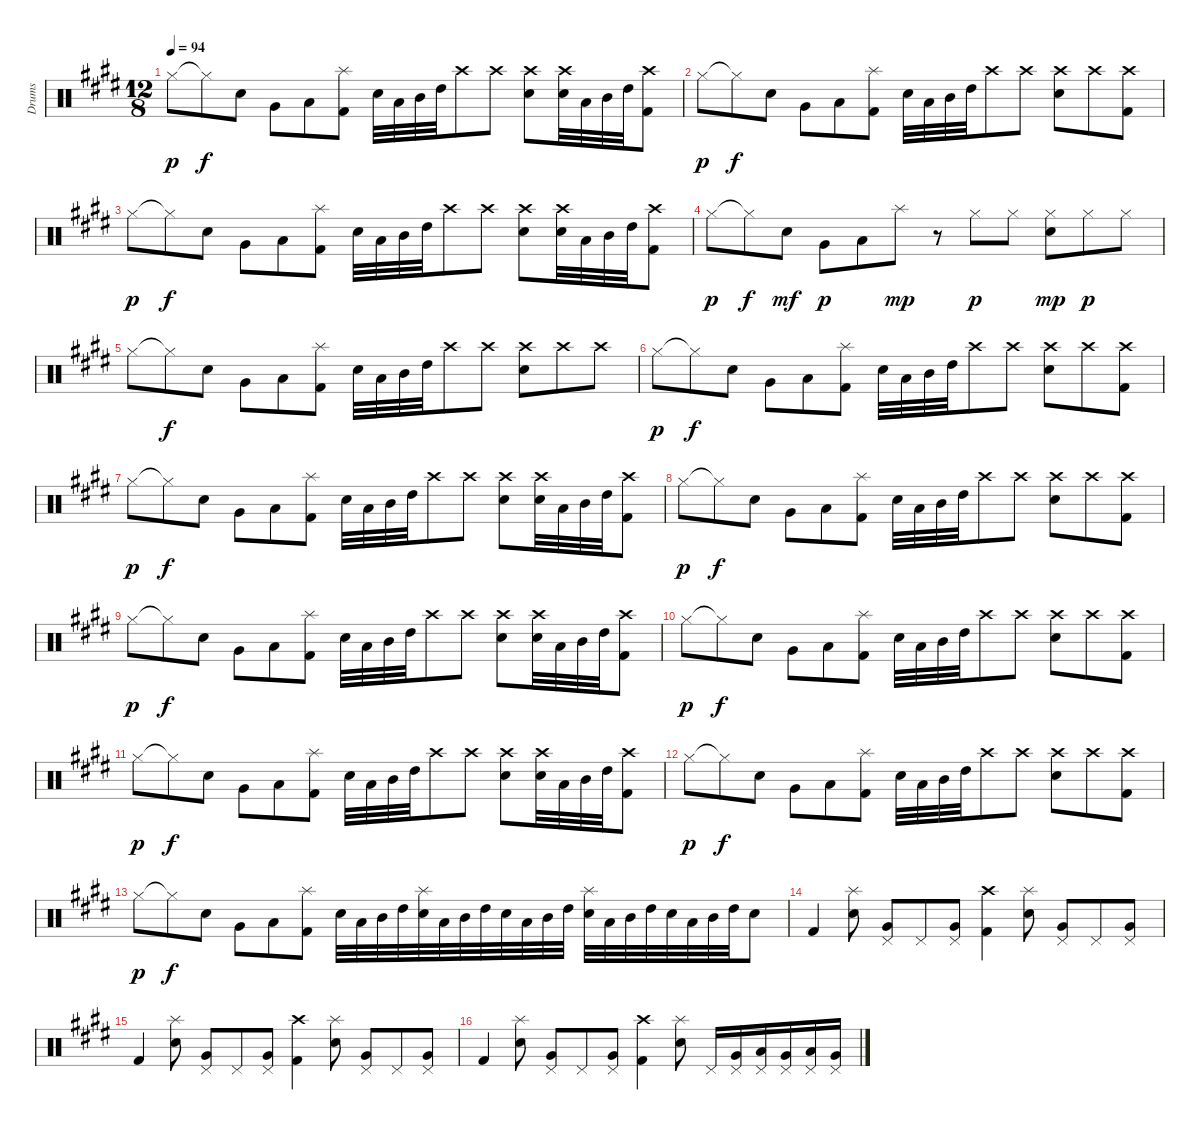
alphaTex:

\track ("Drums" "Drums") {instrument percussion}
\staff {score}
\articulation defaults
\ts (12 8)
\tempo 94
\clef neutral
\ks e "Hi-Hat (closed)".8{dy p} "Hi-Hat (closed)"{t}.8{dy f} "Snare (hit) 2".8 "Very Low Tom (hit)".8 "Low Tom (hit)".8
("Splash (hit)" "Kick (hit) 2").8 "Snare (hit) 2".32 "Low Tom (hit)".32 "Mid Tom (hit)".32 "High Tom (hit)".32 "Crash high (hit)".8 "Crash high (hit)".8 ("Crash high (hit)" "Snare (hit) 2").8 ("Crash high (hit)" "Snare (hit) 2").32 "Low Tom (hit)".32 "Mid Tom (hit)".32 "High Tom (hit)".32 ("Crash high (hit)" "Kick (hit) 2").8 |
"Hi-Hat (closed)".8{dy p} "Hi-Hat (closed)"{t}.8{dy f} "Snare (hit) 2".8 "Very Low Tom (hit)".8 "Low Tom (hit)".8 ("Splash (hit)" "Kick (hit) 2").8 "Snare (hit) 2".32 "Low Tom (hit)".32 "Mid Tom (hit)".32 "High Tom (hit)".32 "Crash high (hit)".8 "Crash high (hit)".8 ("Crash high (hit)" "Snare (hit) 2").8 "Crash high (hit)".8 ("Crash high (hit)" "Kick (hit) 2").8 |
"Hi-Hat (closed)".8{dy p} "Hi-Hat (closed)"{t}.8{dy f} "Snare (hit) 2".8 "Very Low Tom (hit)".8 "Low Tom (hit)".8 ("Splash (hit)" "Kick (hit) 2").8 "Snare (hit) 2".32 "Low Tom (hit)".32 "Mid Tom (hit)".32 "High Tom (hit)".32 "Crash high (hit)".8 "Crash high (hit)".8 ("Crash high (hit)" "Snare (hit) 2").8 ("Crash high (hit)" "Snare (hit) 2").32 "Low Tom (hit)".32 "Mid Tom (hit)".32 "High Tom (hit)".32 ("Crash high (hit)" "Kick (hit) 2").8 |
"Hi-Hat (closed)".8{dy p} "Hi-Hat (closed)"{t}.8{dy f} "Snare (hit) 2".8{dy mf} "Very Low Tom (hit)".8{dy p} "Low Tom (hit)".8 "Splash (hit)".8{dy mp} r.8 "Hi-Hat (closed)".8{dy p} "Hi-Hat (closed)".8 ("Hi-Hat (closed)" "Snare (hit) 2").8{dy mp} "Hi-Hat (closed)".8{dy p} "Hi-Hat (closed)".8 |
"Hi-Hat (closed)".8 "Hi-Hat (closed)"{t}.8{dy f} "Snare (hit) 2".8 "Very Low Tom (hit)".8 "Low Tom (hit)".8 ("Splash (hit)" "Kick (hit) 2").8 "Snare (hit) 2".32 "Low Tom (hit)".32 "Mid Tom (hit)".32 "High Tom (hit)".32 "Crash high (hit)".8 "Crash high (hit)".8 ("Crash high (hit)" "Snare (hit) 2").8 "Crash high (hit)".8 "Crash high (hit)".8 |
"Hi-Hat (closed)".8{dy p} "Hi-Hat (closed)"{t}.8{dy f} "Snare (hit) 2".8 "Very Low Tom (hit)".8 "Low Tom (hit)".8 ("Splash (hit)" "Kick (hit) 2").8 "Snare (hit) 2".32 "Low Tom (hit)".32 "Mid Tom (hit)".32 "High Tom (hit)".32 "Crash high (hit)".8 "Crash high (hit)".8 ("Crash high (hit)" "Snare (hit) 2").8 "Crash high (hit)".8 ("Crash high (hit)" "Kick (hit) 2").8 |
"Hi-Hat (closed)".8{dy p} "Hi-Hat (closed)"{t}.8{dy f} "Snare (hit) 2".8 "Very Low Tom (hit)".8 "Low Tom (hit)".8 ("Splash (hit)" "Kick (hit) 2").8 "Snare (hit) 2".32 "Low Tom (hit)".32 "Mid Tom (hit)".32 "High Tom (hit)".32 "Crash high (hit)".8 "Crash high (hit)".8 ("Crash high (hit)" "Snare (hit) 2").8 ("Crash high (hit)" "Snare (hit) 2").32 "Low Tom (hit)".32 "Mid Tom (hit)".32 "High Tom (hit)".32 ("Crash high (hit)" "Kick (hit) 2").8 |
"Hi-Hat (closed)".8{dy p} "Hi-Hat (closed)"{t}.8{dy f} "Snare (hit) 2".8 "Very Low Tom (hit)".8 "Low Tom (hit)".8 ("Splash (hit)" "Kick (hit) 2").8 "Snare (hit) 2".32 "Low Tom (hit)".32 "Mid Tom (hit)".32 "High Tom (hit)".32 "Crash high (hit)".8 "Crash high (hit)".8 ("Crash high (hit)" "Snare (hit) 2").8 "Crash high (hit)".8 ("Crash high (hit)" "Kick (hit) 2").8 |
"Hi-Hat (closed)".8{dy p} "Hi-Hat (closed)"{t}.8{dy f} "Snare (hit) 2".8 "Very Low Tom (hit)".8 "Low Tom (hit)".8 ("Splash (hit)" "Kick (hit) 2").8 "Snare (hit) 2".32 "Low Tom (hit)".32 "Mid Tom (hit)".32 "High Tom (hit)".32 "Crash high (hit)".8 "Crash high (hit)".8 ("Crash high (hit)" "Snare (hit) 2").8 ("Crash high (hit)" "Snare (hit) 2").32 "Low Tom (hit)".32 "Mid Tom (hit)".32 "High Tom (hit)".32 ("Crash high (hit)" "Kick (hit) 2").8 |
"Hi-Hat (closed)".8{dy p} "Hi-Hat (closed)"{t}.8{dy f} "Snare (hit) 2".8 "Very Low Tom (hit)".8 "Low Tom (hit)".8 ("Splash (hit)" "Kick (hit) 2").8 "Snare (hit) 2".32 "Low Tom (hit)".32 "Mid Tom (hit)".32 "High Tom (hit)".32 "Crash high (hit)".8 "Crash high (hit)".8 ("Crash high (hit)" "Snare (hit) 2").8 "Crash high (hit)".8 ("Crash high (hit)" "Kick (hit) 2").8 |
"Hi-Hat (closed)".8{dy p} "Hi-Hat (closed)"{t}.8{dy f} "Snare (hit) 2".8 "Very Low Tom (hit)".8 "Low Tom (hit)".8 ("Splash (hit)" "Kick (hit) 2").8 "Snare (hit) 2".32 "Low Tom (hit)".32 "Mid Tom (hit)".32 "High Tom (hit)".32 "Crash high (hit)".8 "Crash high (hit)".8 ("Crash high (hit)" "Snare (hit) 2").8 ("Crash high (hit)" "Snare (hit) 2").32 "Low Tom (hit)".32 "Mid Tom (hit)".32 "High Tom (hit)".32 ("Crash high (hit)" "Kick (hit) 2").8 |
"Hi-Hat (closed)".8{dy p} "Hi-Hat (closed)"{t}.8{dy f} "Snare (hit) 2".8 "Very Low Tom (hit)".8 "Low Tom (hit)".8 ("Splash (hit)" "Kick (hit) 2").8 "Snare (hit) 2".32 "Low Tom (hit)".32 "Mid Tom (hit)".32 "High Tom (hit)".32 "Crash high (hit)".8 "Crash high (hit)".8 ("Crash high (hit)" "Snare (hit) 2").8 "Crash high (hit)".8 ("Crash high (hit)" "Kick (hit) 2").8 |
"Hi-Hat (closed)".8{dy p} "Hi-Hat (closed)"{t}.8{dy f} "Snare (hit) 2".8 "Very Low Tom (hit)".8 "Low Tom (hit)".8 ("Splash (hit)" "Kick (hit) 2").8 "Snare (hit) 2".32 "Low Tom (hit)".32 "Mid Tom (hit)".32 "High Tom (hit)".32 ("Splash (hit)" "Snare (hit) 2").32 "Low Tom (hit)".32 "Mid Tom (hit)".32 "High Tom (hit)".32 "Snare (hit) 2".32 "Low Tom (hit)".32 "Mid Tom (hit)".32 "High Tom (hit)".32 ("Splash (hit)" "Snare (hit) 2").32 "Low Tom (hit)".32 "Mid Tom (hit)".32 "High Tom (hit)".32 "Snare (hit) 2".32 "Low Tom (hit)".32 "Mid Tom (hit)".32 "High Tom (hit)".32 "Snare (hit) 2".8 |
"Kick (hit) 2".4 ("Splash (hit)" "Snare (hit) 2").8 ("Pedal Hi-Hat (hit)" "Very Low Tom (hit)").8 "Pedal Hi-Hat (hit)".8 ("Pedal Hi-Hat (hit)" "Very Low Tom (hit)").8 ("Crash high (hit)" "Kick (hit) 2").4 ("Splash (hit)" "Snare (hit) 2").8 ("Pedal Hi-Hat (hit)" "Very Low Tom (hit)").8 "Pedal Hi-Hat (hit)".8 ("Pedal Hi-Hat (hit)" "Very Low Tom (hit)").8 |
"Kick (hit) 2".4 ("Splash (hit)" "Snare (hit) 2").8 ("Pedal Hi-Hat (hit)" "Very Low Tom (hit)").8 "Pedal Hi-Hat (hit)".8 ("Pedal Hi-Hat (hit)" "Very Low Tom (hit)").8 ("Crash high (hit)" "Kick (hit) 2").4 ("Splash (hit)" "Snare (hit) 2").8 ("Pedal Hi-Hat (hit)" "Very Low Tom (hit)").8 "Pedal Hi-Hat (hit)".8 ("Pedal Hi-Hat (hit)" "Very Low Tom (hit)").8 |
"Kick (hit) 2".4 ("Splash (hit)" "Snare (hit) 2").8 ("Pedal Hi-Hat (hit)" "Very Low Tom (hit)").8 "Pedal Hi-Hat (hit)".8 ("Pedal Hi-Hat (hit)" "Very Low Tom (hit)").8 ("Crash high (hit)" "Kick (hit) 2").4 ("Splash (hit)" "Snare (hit) 2").8 "Pedal Hi-Hat (hit)".16 ("Pedal Hi-Hat (hit)" "Very Low Tom (hit)").16 ("Pedal Hi-Hat (hit)" "Low Tom (hit)").16 ("Pedal Hi-Hat (hit)" "Very Low Tom (hit)").16 ("Pedal Hi-Hat (hit)" "Low Tom (hit)").16 ("Pedal Hi-Hat (hit)" "Very Low Tom (hit)").16
